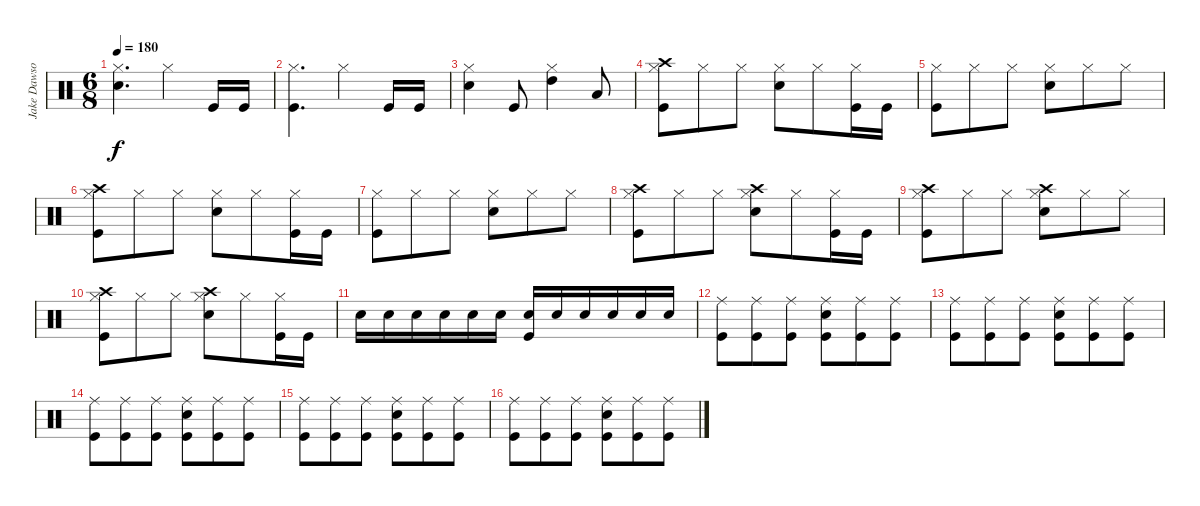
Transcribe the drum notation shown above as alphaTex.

\track ("Jake Dawson" "Jake Dawso") {instrument percussion}
\staff {score}
\articulation defaults
\ts (6 8)
\tempo 180
\clef neutral
\ks c
("Hi-Hat (closed)" "Snare (hit) 2").4{d dy f} "Hi-Hat (closed)".4 "Kick (hit)".16 "Kick (hit)".16 |
("Hi-Hat (closed)" "Kick (hit)").4{d} "Hi-Hat (closed)".4 "Kick (hit)".16 "Kick (hit)".16 |
("Hi-Hat (closed)" "Snare (hit) 2").4 "Kick (hit)".8 ("Hi-Hat (closed)" "High Tom (hit)").4 "Low Tom (hit)".8 |
("Crash high (hit)" "Hi-Hat (closed)" "Kick (hit)").8 "Hi-Hat (closed)".8 "Hi-Hat (closed)".8 ("Hi-Hat (closed)" "Snare (hit) 2").8 "Hi-Hat (closed)".8 ("Hi-Hat (closed)" "Kick (hit)").16 "Kick (hit)".16 |
("Hi-Hat (closed)" "Kick (hit)").8 "Hi-Hat (closed)".8 "Hi-Hat (closed)".8 ("Hi-Hat (closed)" "Snare (hit) 2").8 "Hi-Hat (closed)".8 "Hi-Hat (closed)".8 |
("Crash high (hit)" "Hi-Hat (closed)" "Kick (hit)").8 "Hi-Hat (closed)".8 "Hi-Hat (closed)".8 ("Hi-Hat (closed)" "Snare (hit) 2").8 "Hi-Hat (closed)".8 ("Hi-Hat (closed)" "Kick (hit)").16 "Kick (hit)".16 |
("Hi-Hat (closed)" "Kick (hit)").8 "Hi-Hat (closed)".8 "Hi-Hat (closed)".8 ("Hi-Hat (closed)" "Snare (hit) 2").8 "Hi-Hat (closed)".8 "Hi-Hat (closed)".8 |
("Crash high (hit)" "Hi-Hat (closed)" "Kick (hit)").8 "Hi-Hat (closed)".8 "Hi-Hat (closed)".8 ("Crash high (hit)" "Hi-Hat (closed)" "Snare (hit) 2").8 "Hi-Hat (closed)".8 ("Hi-Hat (closed)" "Kick (hit)").16 "Kick (hit)".16 |
("Crash high (hit)" "Hi-Hat (closed)" "Kick (hit)").8 "Hi-Hat (closed)".8 "Hi-Hat (closed)".8 ("Crash high (hit)" "Hi-Hat (closed)" "Snare (hit) 2").8 "Hi-Hat (closed)".8 "Hi-Hat (closed)".8 |
("Crash high (hit)" "Hi-Hat (closed)" "Kick (hit)").8 "Hi-Hat (closed)".8 "Hi-Hat (closed)".8 ("Crash high (hit)" "Hi-Hat (closed)" "Snare (hit) 2").8 "Hi-Hat (closed)".8 ("Hi-Hat (closed)" "Kick (hit)").16 "Kick (hit)".16 |
"Snare (hit) 2".16 "Snare (hit) 2".16 "Snare (hit) 2".16 "Snare (hit) 2".16 "Snare (hit) 2".16 "Snare (hit) 2".16 ("Snare (hit) 2" "Kick (hit)").16 "Snare (hit) 2".16 "Snare (hit) 2".16 "Snare (hit) 2".16 "Snare (hit) 2".16 "Snare (hit) 2".16 |
("Ride (middle)" "Kick (hit)").8 ("Ride (middle)" "Kick (hit)").8 ("Ride (middle)" "Kick (hit)").8 ("Ride (middle)" "Snare (hit) 2" "Kick (hit)").8 ("Ride (middle)" "Kick (hit)").8 ("Ride (middle)" "Kick (hit)").8 |
("Ride (middle)" "Kick (hit)").8 ("Ride (middle)" "Kick (hit)").8 ("Ride (middle)" "Kick (hit)").8 ("Ride (middle)" "Snare (hit) 2" "Kick (hit)").8 ("Ride (middle)" "Kick (hit)").8 ("Ride (middle)" "Kick (hit)").8 |
("Ride (middle)" "Kick (hit)").8 ("Ride (middle)" "Kick (hit)").8 ("Ride (middle)" "Kick (hit)").8 ("Ride (middle)" "Snare (hit) 2" "Kick (hit)").8 ("Ride (middle)" "Kick (hit)").8 ("Ride (middle)" "Kick (hit)").8 |
("Ride (middle)" "Kick (hit)").8 ("Ride (middle)" "Kick (hit)").8 ("Ride (middle)" "Kick (hit)").8 ("Ride (middle)" "Snare (hit) 2" "Kick (hit)").8 ("Ride (middle)" "Kick (hit)").8 ("Ride (middle)" "Kick (hit)").8 |
("Ride (middle)" "Kick (hit)").8 ("Ride (middle)" "Kick (hit)").8 ("Ride (middle)" "Kick (hit)").8 ("Ride (middle)" "Snare (hit) 2" "Kick (hit)").8 ("Ride (middle)" "Kick (hit)").8 ("Ride (middle)" "Kick (hit)").8
